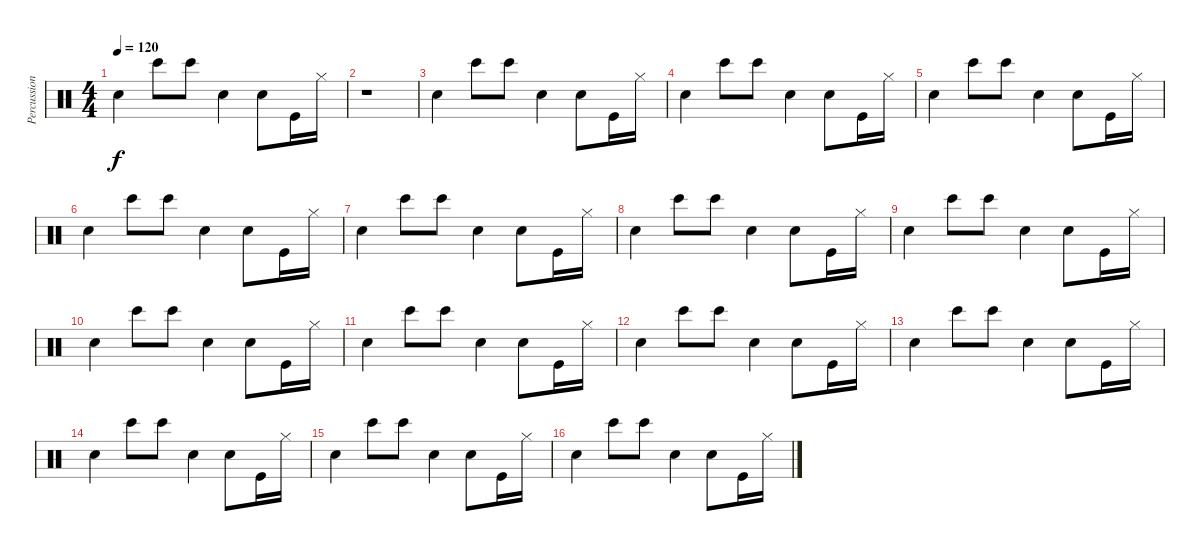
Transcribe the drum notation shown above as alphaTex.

\track ("Percussion" "Percussion") {instrument percussion}
\staff {score}
\articulation defaults
\ts (4 4)
\tempo 120
\clef neutral
\ks c "Electric Snare (hit)".4{dy f} "Bongo High (hit)".8 "Bongo High (hit)".8 "Electric Snare (hit)".4 "Snare (hit) 2".8 "Kick (hit)".16 "Hi-Hat (closed)".16
|
r.1 |
"Electric Snare (hit)".4 "Bongo High (hit)".8 "Bongo High (hit)".8 "Electric Snare (hit)".4 "Snare (hit) 2".8 "Kick (hit)".16 "Hi-Hat (closed)".16 |
"Electric Snare (hit)".4 "Bongo High (hit)".8 "Bongo High (hit)".8 "Electric Snare (hit)".4 "Snare (hit) 2".8 "Kick (hit)".16 "Hi-Hat (closed)".16 |
"Electric Snare (hit)".4 "Bongo High (hit)".8 "Bongo High (hit)".8 "Electric Snare (hit)".4 "Snare (hit) 2".8 "Kick (hit)".16 "Hi-Hat (closed)".16 |
"Electric Snare (hit)".4 "Bongo High (hit)".8 "Bongo High (hit)".8 "Electric Snare (hit)".4 "Snare (hit) 2".8 "Kick (hit)".16 "Hi-Hat (closed)".16 |
"Electric Snare (hit)".4 "Bongo High (hit)".8 "Bongo High (hit)".8 "Electric Snare (hit)".4 "Snare (hit) 2".8 "Kick (hit)".16 "Hi-Hat (closed)".16 |
"Electric Snare (hit)".4 "Bongo High (hit)".8 "Bongo High (hit)".8 "Electric Snare (hit)".4 "Snare (hit) 2".8 "Kick (hit)".16 "Hi-Hat (closed)".16 |
"Electric Snare (hit)".4 "Bongo High (hit)".8 "Bongo High (hit)".8 "Electric Snare (hit)".4 "Snare (hit) 2".8 "Kick (hit)".16 "Hi-Hat (closed)".16 |
"Electric Snare (hit)".4 "Bongo High (hit)".8 "Bongo High (hit)".8 "Electric Snare (hit)".4 "Snare (hit) 2".8 "Kick (hit)".16 "Hi-Hat (closed)".16 |
"Electric Snare (hit)".4 "Bongo High (hit)".8 "Bongo High (hit)".8 "Electric Snare (hit)".4 "Snare (hit) 2".8 "Kick (hit)".16 "Hi-Hat (closed)".16 |
"Electric Snare (hit)".4 "Bongo High (hit)".8 "Bongo High (hit)".8 "Electric Snare (hit)".4 "Snare (hit) 2".8 "Kick (hit)".16 "Hi-Hat (closed)".16 |
"Electric Snare (hit)".4 "Bongo High (hit)".8 "Bongo High (hit)".8 "Electric Snare (hit)".4 "Snare (hit) 2".8 "Kick (hit)".16 "Hi-Hat (closed)".16 |
"Electric Snare (hit)".4 "Bongo High (hit)".8 "Bongo High (hit)".8 "Electric Snare (hit)".4 "Snare (hit) 2".8 "Kick (hit)".16 "Hi-Hat (closed)".16 |
"Electric Snare (hit)".4 "Bongo High (hit)".8 "Bongo High (hit)".8 "Electric Snare (hit)".4 "Snare (hit) 2".8 "Kick (hit)".16 "Hi-Hat (closed)".16 |
"Electric Snare (hit)".4 "Bongo High (hit)".8 "Bongo High (hit)".8 "Electric Snare (hit)".4 "Snare (hit) 2".8 "Kick (hit)".16 "Hi-Hat (closed)".16
